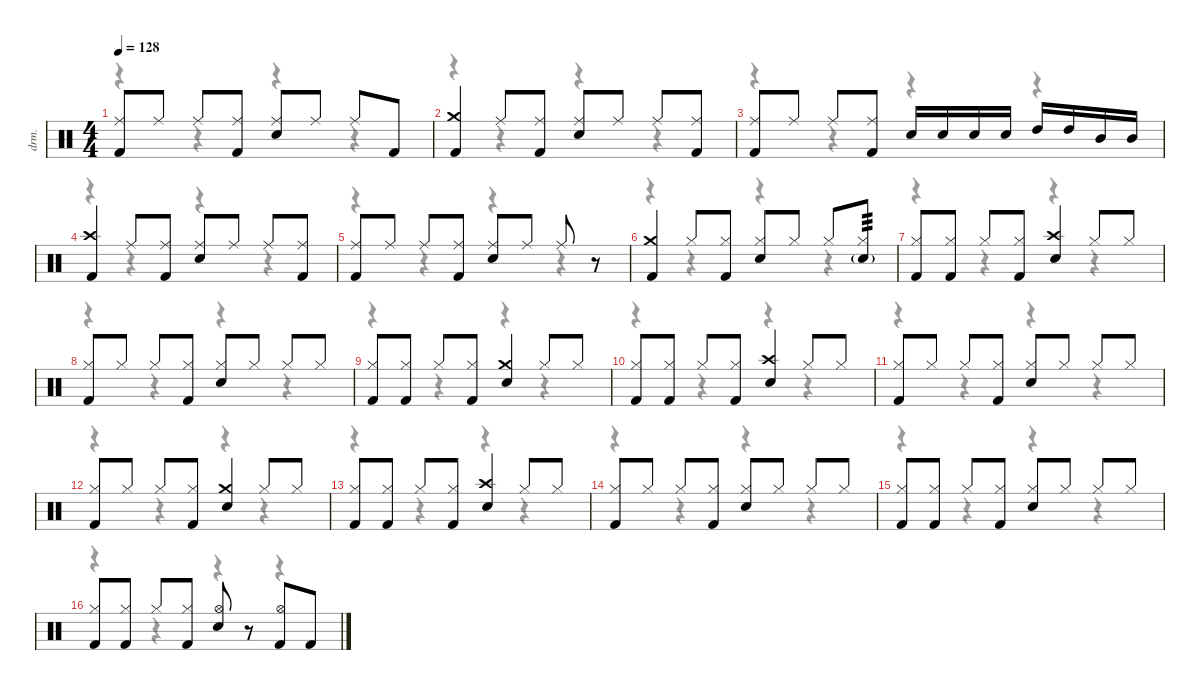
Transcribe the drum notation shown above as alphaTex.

\defaultSystemsLayout 4
\hideDynamics
\bracketExtendMode nobrackets
\track ("Drums" "drm.") {instrument percussion}
\staff {score}
\articulation defaults
\voice
\ts (4 4)
\tempo 128
\clef neutral
\ks c
("Kick (hit) 2" "Ride (middle)").8{dy fff} "Ride (middle)".8{dy mp} "Ride (middle)".8 ("Kick (hit) 2" "Ride (middle)").8{dy fff} ("Snare (hit) 2" "Ride (middle)").8 "Ride (middle)".8{dy mp} "Ride (middle)".8 "Kick (hit) 2".8{dy fff} |
("Kick (hit) 2" "Crash medium (hit)").4 "Ride (middle)".8{dy mp} ("Kick (hit) 2" "Ride (middle)").8{dy fff} ("Snare (hit) 2" "Ride (middle)").8 "Ride (middle)".8{dy mp} "Ride (middle)".8 ("Kick (hit) 2" "Ride (middle)").8{dy fff} |
("Kick (hit) 2" "Ride (middle)").8 "Ride (middle)".8{dy mp} "Ride (middle)".8 ("Kick (hit) 2" "Ride (middle)").8{dy fff} "Snare (hit) 2".16 "Snare (hit) 2".16 "Snare (hit) 2".16 "Snare (hit) 2".16 "High Tom (hit)".16 "High Tom (hit)".16 "Mid Tom (hit)".16 "Mid Tom (hit)".16 |
("Kick (hit) 2" "Crash high (hit)").4 "Ride (middle)".8{dy mp} ("Kick (hit) 2" "Ride (middle)").8{dy fff} ("Snare (hit) 2" "Ride (middle)").8 "Ride (middle)".8{dy mp} "Ride (middle)".8 ("Kick (hit) 2" "Ride (middle)").8{dy fff} |
("Kick (hit) 2" "Ride (middle)").8 "Ride (middle)".8{dy mp} "Ride (middle)".8 ("Kick (hit) 2" "Ride (middle)").8{dy fff} ("Snare (hit) 2" "Ride (middle)").8 "Ride (middle)".8{dy mp} "Ride (middle)".8 r.8 |
("Kick (hit) 2" "Crash medium (hit)").4{dy fff} "Hi-Hat (closed)".8{dy mp} ("Kick (hit) 2" "Hi-Hat (closed)").8{dy fff} ("Snare (hit) 2" "Hi-Hat (closed)").8 "Hi-Hat (closed)".8{dy p} "Hi-Hat (closed)".8{dy mp} ("Snare (hit) 2"{g} "Hi-Hat (closed)").8{tp 3 dy p} |
("Kick (hit) 2" "Hi-Hat (closed)").8{dy fff} ("Kick (hit) 2" "Hi-Hat (closed)").8 "Hi-Hat (closed)".8{dy mp} ("Kick (hit) 2" "Hi-Hat (closed)").8{dy fff} ("Snare (hit) 2" "Crash high (hit)").4 "Hi-Hat (closed)".8{dy mp} "Hi-Hat (closed)".8{dy p} |
("Kick (hit) 2" "Hi-Hat (closed)").8{dy fff} "Hi-Hat (closed)".8{dy p} "Hi-Hat (closed)".8{dy mp} ("Kick (hit) 2" "Hi-Hat (closed)").8{dy fff} ("Snare (hit) 2" "Hi-Hat (closed)").8 "Hi-Hat (closed)".8{dy p} "Hi-Hat (closed)".8{dy mp} "Hi-Hat (closed)".8{dy p} |
("Kick (hit) 2" "Hi-Hat (closed)").8{dy fff} ("Kick (hit) 2" "Hi-Hat (closed)").8 "Hi-Hat (closed)".8{dy mp} ("Kick (hit) 2" "Hi-Hat (closed)").8{dy fff} ("Snare (hit) 2" "Crash medium (hit)").4 "Hi-Hat (closed)".8{dy mp} "Hi-Hat (closed)".8{dy p} |
("Kick (hit) 2" "Hi-Hat (closed)").8{dy fff} ("Kick (hit) 2" "Hi-Hat (closed)").8 "Hi-Hat (closed)".8{dy mp} ("Kick (hit) 2" "Hi-Hat (closed)").8{dy fff} ("Snare (hit) 2" "Crash high (hit)").4 "Hi-Hat (closed)".8{dy mp} "Hi-Hat (closed)".8{dy p} |
("Kick (hit) 2" "Hi-Hat (closed)").8{dy fff} "Hi-Hat (closed)".8{dy p} "Hi-Hat (closed)".8{dy mp} ("Kick (hit) 2" "Hi-Hat (closed)").8{dy fff} ("Snare (hit) 2" "Hi-Hat (closed)").8 "Hi-Hat (closed)".8{dy p} "Hi-Hat (closed)".8{dy mp} "Hi-Hat (closed)".8{dy p} |
("Kick (hit) 2" "Hi-Hat (closed)").8{dy fff} "Hi-Hat (closed)".8{dy p} "Hi-Hat (closed)".8{dy mp} ("Kick (hit) 2" "Hi-Hat (closed)").8{dy fff} ("Snare (hit) 2" "Crash medium (hit)").4 "Hi-Hat (closed)".8{dy mp} "Hi-Hat (closed)".8{dy p} |
("Kick (hit) 2" "Hi-Hat (closed)").8{dy fff} ("Kick (hit) 2" "Hi-Hat (closed)").8 "Hi-Hat (closed)".8{dy mp} ("Kick (hit) 2" "Hi-Hat (closed)").8{dy fff} ("Snare (hit) 2" "Crash high (hit)").4 "Hi-Hat (closed)".8{dy mp} "Hi-Hat (closed)".8{dy p} |
("Kick (hit) 2" "Hi-Hat (closed)").8{dy fff} "Hi-Hat (closed)".8{dy p} "Hi-Hat (closed)".8{dy mp} ("Kick (hit) 2" "Hi-Hat (closed)").8{dy fff} ("Snare (hit) 2" "Hi-Hat (closed)").8 "Hi-Hat (closed)".8{dy p} "Hi-Hat (closed)".8{dy mp} "Hi-Hat (closed)".8{dy p} |
("Kick (hit) 2" "Hi-Hat (closed)").8{dy fff} ("Kick (hit) 2" "Hi-Hat (closed)").8 "Hi-Hat (closed)".8{dy mp} ("Kick (hit) 2" "Hi-Hat (closed)").8{dy fff} ("Snare (hit) 2" "Hi-Hat (closed)").8 "Hi-Hat (closed)".8{dy p} "Hi-Hat (closed)".8{dy mp} "Hi-Hat (closed)".8{dy p} |
("Kick (hit) 2" "Hi-Hat (closed)").8{dy fff} ("Kick (hit) 2" "Hi-Hat (closed)").8 "Hi-Hat (closed)".8{dy mp} ("Kick (hit) 2" "Hi-Hat (closed)").8{dy fff} ("Snare (hit) 2" "Hi-Hat (open)").8 r.8 ("Kick (hit) 2" "Hi-Hat (open)").8 "Kick (hit) 2".8
\voice
\clef neutral
\ottava regular
\simile none
\ks c
r.4{dy mf} r.4 r.4 r.4 |
r.4 r.4 r.4 r.4 |
r.4 r.4 r.4 r.4 |
r.4 r.4 r.4 r.4 |
r.4 r.4 r.4 r.4 |
r.4 r.4 r.4 r.4 |
r.4 r.4 r.4 r.4 |
r.4 r.4 r.4 r.4 |
r.4 r.4 r.4 r.4 |
r.4 r.4 r.4 r.4 |
r.4 r.4 r.4 r.4 |
r.4 r.4 r.4 r.4 |
r.4 r.4 r.4 r.4 |
r.4 r.4 r.4 r.4 |
r.4 r.4 r.4 r.4 |
r.4 r.4 r.4 r.4
